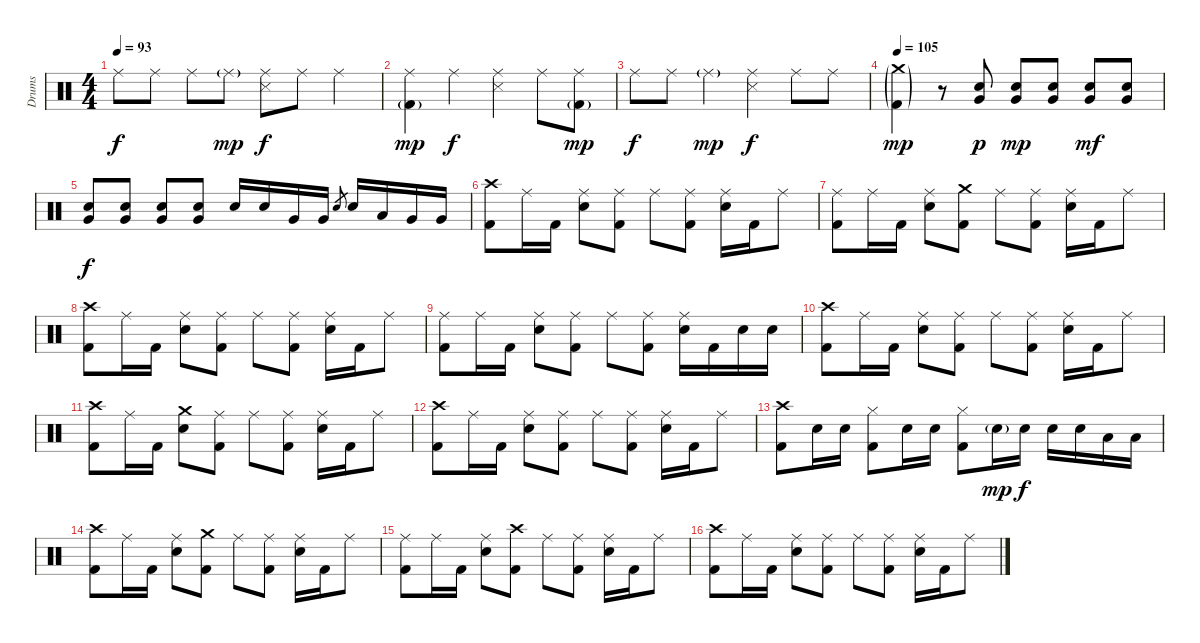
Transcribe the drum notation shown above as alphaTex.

\track ("Drums" "Drums") {instrument percussion}
\staff {score}
\articulation defaults
\ts (4 4)
\tempo 93
\clef neutral
\ks c "Ride (middle)".8{dy f} "Ride (middle)".8 "Ride (middle)".8 "Ride (middle)"{g}.8{dy mp}
("Ride (middle)" "Snare (side stick) 3").8{dy f} "Ride (middle)".8 "Ride (middle)".4 |
("Ride (middle)" "Kick (hit) 2"{g}).4{dy mp} "Ride (middle)".4{dy f} ("Ride (middle)" "Snare (side stick) 3").4 "Ride (middle)".8 ("Ride (middle)" "Kick (hit) 2"{g}).8{dy mp} |
"Ride (middle)".8{dy f} "Ride (middle)".8 "Ride (middle)"{g}.4{dy mp} ("Ride (middle)" "Snare (side stick) 3").4{dy f} "Ride (middle)".8 "Ride (middle)".8 |
\tempo 105
("Crash medium (hit)"{g} "Kick (hit) 2"{g}).4{dy mp} r.8 ("Electric Snare (hit)" "Very Low Tom (hit)").8{dy p} ("Electric Snare (hit)" "Very Low Tom (hit)").8{dy mp} ("Electric Snare (hit)" "Very Low Tom (hit)").8 ("Electric Snare (hit)" "Very Low Tom (hit)").8{dy mf} ("Electric Snare (hit)" "Very Low Tom (hit)").8 |
("Electric Snare (hit)" "Very Low Tom (hit)").8{dy f} ("Electric Snare (hit)" "Very Low Tom (hit)").8 ("Electric Snare (hit)" "Very Low Tom (hit)").8 ("Electric Snare (hit)" "Very Low Tom (hit)").8 "Electric Snare (hit)".16 "Electric Snare (hit)".16 "Very Low Tom (hit)".16 "Very Low Tom (hit)".16 "Electric Snare (hit)".8{gr} "Electric Snare (hit)".16 "Low Tom (hit)".16 "Very Low Tom (hit)".16 "Very Low Tom (hit)".16 |
("Crash high (hit)" "Kick (hit) 2").8 "Ride (middle)".16 "Kick (hit) 2".16 ("Ride (middle)" "Electric Snare (hit)").8 ("Ride (middle)" "Kick (hit) 2").8 "Ride (middle)".8 ("Ride (middle)" "Kick (hit) 2").8 ("Ride (middle)" "Electric Snare (hit)").16 "Kick (hit) 2".16 "Ride (middle)".8 |
("Ride (middle)" "Kick (hit) 2").8 "Ride (middle)".16 "Kick (hit) 2".16 ("Ride (middle)" "Electric Snare (hit)").8 ("Crash medium (hit)" "Kick (hit) 2").8 "Ride (middle)".8 ("Ride (middle)" "Kick (hit) 2").8 ("Ride (middle)" "Electric Snare (hit)").16 "Kick (hit) 2".16 "Ride (middle)".8 |
("Crash high (hit)" "Kick (hit) 2").8 "Ride (middle)".16 "Kick (hit) 2".16 ("Ride (middle)" "Electric Snare (hit)").8 ("Ride (middle)" "Kick (hit) 2").8 "Ride (middle)".8 ("Ride (middle)" "Kick (hit) 2").8 ("Ride (middle)" "Electric Snare (hit)").16 "Kick (hit) 2".16 "Ride (middle)".8 |
("Ride (middle)" "Kick (hit) 2").8 "Ride (middle)".16 "Kick (hit) 2".16 ("Ride (middle)" "Electric Snare (hit)").8 ("Ride (middle)" "Kick (hit) 2").8 "Ride (middle)".8 ("Ride (middle)" "Kick (hit) 2").8 ("Ride (middle)" "Electric Snare (hit)").16 "Kick (hit) 2".16 "Electric Snare (hit)".16 "Electric Snare (hit)".16 |
("Crash high (hit)" "Kick (hit) 2").8 "Ride (middle)".16 "Kick (hit) 2".16 ("Ride (middle)" "Electric Snare (hit)").8 ("Ride (middle)" "Kick (hit) 2").8 "Ride (middle)".8 ("Ride (middle)" "Kick (hit) 2").8 ("Ride (middle)" "Electric Snare (hit)").16 "Kick (hit) 2".16 "Ride (middle)".8 |
("Crash high (hit)" "Kick (hit) 2").8 "Ride (middle)".16 "Kick (hit) 2".16 ("Crash medium (hit)" "Electric Snare (hit)").8 ("Ride (middle)" "Kick (hit) 2").8 "Ride (middle)".8 ("Ride (middle)" "Kick (hit) 2").8 ("Ride (middle)" "Electric Snare (hit)").16 "Kick (hit) 2".16 "Ride (middle)".8 |
("Crash high (hit)" "Kick (hit) 2").8 "Ride (middle)".16 "Kick (hit) 2".16 ("Ride (middle)" "Electric Snare (hit)").8 ("Ride (middle)" "Kick (hit) 2").8 "Ride (middle)".8 ("Ride (middle)" "Kick (hit) 2").8 ("Ride (middle)" "Electric Snare (hit)").16 "Kick (hit) 2".16 "Ride (middle)".8 |
("Crash high (hit)" "Kick (hit) 2").8 "Electric Snare (hit)".16 "Electric Snare (hit)".16 ("Hi-Hat (closed)" "Kick (hit) 2").8 "Electric Snare (hit)".16 "Electric Snare (hit)".16 ("Hi-Hat (closed)" "Kick (hit) 2").8 "Electric Snare (hit)"{g}.16{dy mp} "Electric Snare (hit)".16{dy f} "Electric Snare (hit)".16 "Electric Snare (hit)".16 "Low Tom (hit)".16 "Low Tom (hit)".16 |
("Crash high (hit)" "Kick (hit) 2").8 "Ride (middle)".16 "Kick (hit) 2".16 ("Ride (middle)" "Electric Snare (hit)").8 ("Crash medium (hit)" "Kick (hit) 2").8 "Ride (middle)".8 ("Ride (middle)" "Kick (hit) 2").8 ("Ride (middle)" "Electric Snare (hit)").16 "Kick (hit) 2".16 "Ride (middle)".8 |
("Ride (middle)" "Kick (hit) 2").8 "Ride (middle)".16 "Kick (hit) 2".16 ("Ride (middle)" "Electric Snare (hit)").8 ("Crash high (hit)" "Kick (hit) 2").8 "Ride (middle)".8 ("Ride (middle)" "Kick (hit) 2").8 ("Ride (middle)" "Electric Snare (hit)").16 "Kick (hit) 2".16 "Ride (middle)".8 |
("Crash high (hit)" "Kick (hit) 2").8 "Ride (middle)".16 "Kick (hit) 2".16 ("Ride (middle)" "Electric Snare (hit)").8 ("Ride (middle)" "Kick (hit) 2").8 "Ride (middle)".8 ("Ride (middle)" "Kick (hit) 2").8 ("Ride (middle)" "Electric Snare (hit)").16 "Kick (hit) 2".16 "Ride (middle)".8
